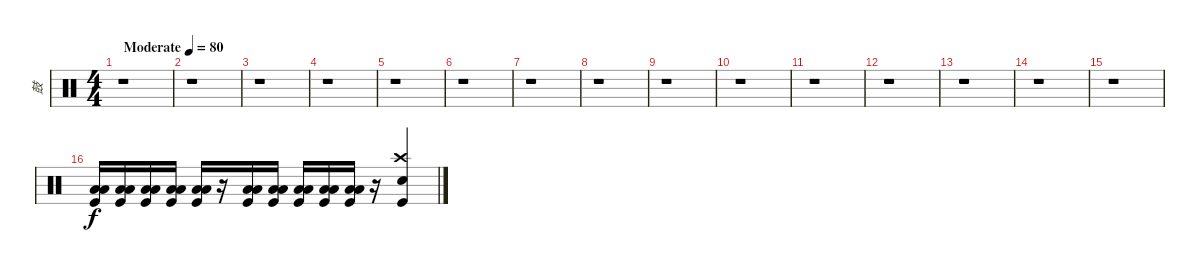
\track ("鼓" "鼓") {instrument percussion}
\staff {score}
\articulation defaults
\ts (4 4)
\tempo (80 "Moderate")
\clef neutral
\ks c
r.1{dy f} |
r.1 |
r.1 |
r.1 |
r.1 |
r.1 |
r.1 |
r.1 |
r.1 |
r.1 |
r.1 |
r.1 |
r.1 |
r.1 |
r.1 |
("Low Tom (hit)" "Low Floor Tom (hit)" "Kick (hit)").16 ("Low Floor Tom (hit)" "Low Tom (hit)" "Kick (hit)").16 ("Low Floor Tom (hit)" "Low Tom (hit)" "Kick (hit)").16 ("Low Tom (hit)" "Low Floor Tom (hit)" "Kick (hit)").16 ("Low Floor Tom (hit)" "Low Tom (hit)" "Kick (hit)").16 r.16 ("Low Tom (hit)" "Low Floor Tom (hit)" "Kick (hit)").16 ("Low Floor Tom (hit)" "Low Tom (hit)" "Kick (hit)").16 ("Low Tom (hit)" "Low Floor Tom (hit)" "Kick (hit)").16 ("Low Floor Tom (hit)" "Low Tom (hit)" "Kick (hit)").16 ("Low Floor Tom (hit)" "Low Tom (hit)" "Kick (hit)").16 r.16 ("Crash high (hit)" "Electric Snare (hit)" "Kick (hit)").4
